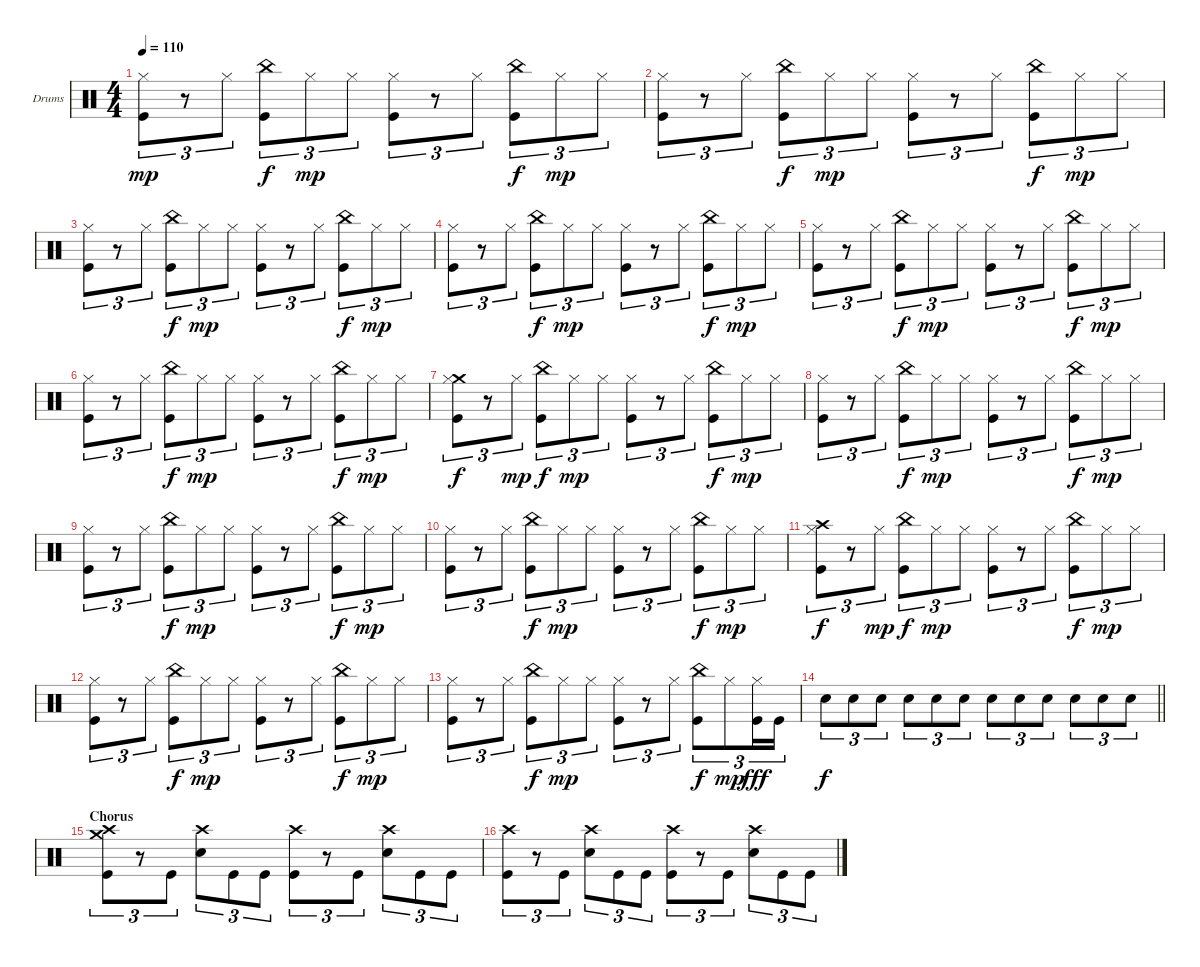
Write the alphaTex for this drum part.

\bracketExtendMode groupsimilarinstruments
\firstSystemTrackNameOrientation horizontal
\otherSystemsTrackNameOrientation horizontal
\track ("Drumkit" "Drums") {instrument percussion}
\staff {score}
\articulation defaults
\ts (4 4)
\tempo 110
\clef neutral
\ks c
("Hi-Hat (closed)" "Kick (hit)").8{tu (3 2) dy mp} r.8{tu (3 2)} "Hi-Hat (closed)".8{tu (3 2)} ("China (hit)" "Kick (hit)").8{tu (3 2) dy f} "Hi-Hat (closed)".8{tu (3 2) dy mp} "Hi-Hat (closed)".8{tu (3 2)} ("Hi-Hat (closed)" "Kick (hit)").8{tu (3 2)} r.8{tu (3 2)} "Hi-Hat (closed)".8{tu (3 2)} ("China (hit)" "Kick (hit)").8{tu (3 2) dy f} "Hi-Hat (closed)".8{tu (3 2) dy mp} "Hi-Hat (closed)".8{tu (3 2)} |
("Hi-Hat (closed)" "Kick (hit)").8{tu (3 2)} r.8{tu (3 2)} "Hi-Hat (closed)".8{tu (3 2)} ("China (hit)" "Kick (hit)").8{tu (3 2) dy f} "Hi-Hat (closed)".8{tu (3 2) dy mp} "Hi-Hat (closed)".8{tu (3 2)} ("Hi-Hat (closed)" "Kick (hit)").8{tu (3 2)} r.8{tu (3 2)} "Hi-Hat (closed)".8{tu (3 2)} ("China (hit)" "Kick (hit)").8{tu (3 2) dy f} "Hi-Hat (closed)".8{tu (3 2) dy mp} "Hi-Hat (closed)".8{tu (3 2)} |
("Hi-Hat (closed)" "Kick (hit)").8{tu (3 2)} r.8{tu (3 2)} "Hi-Hat (closed)".8{tu (3 2)} ("China (hit)" "Kick (hit)").8{tu (3 2) dy f} "Hi-Hat (closed)".8{tu (3 2) dy mp} "Hi-Hat (closed)".8{tu (3 2)} ("Hi-Hat (closed)" "Kick (hit)").8{tu (3 2)} r.8{tu (3 2)} "Hi-Hat (closed)".8{tu (3 2)} ("China (hit)" "Kick (hit)").8{tu (3 2) dy f} "Hi-Hat (closed)".8{tu (3 2) dy mp} "Hi-Hat (closed)".8{tu (3 2)} |
("Hi-Hat (closed)" "Kick (hit)").8{tu (3 2)} r.8{tu (3 2)} "Hi-Hat (closed)".8{tu (3 2)} ("China (hit)" "Kick (hit)").8{tu (3 2) dy f} "Hi-Hat (closed)".8{tu (3 2) dy mp} "Hi-Hat (closed)".8{tu (3 2)} ("Hi-Hat (closed)" "Kick (hit)").8{tu (3 2)} r.8{tu (3 2)} "Hi-Hat (closed)".8{tu (3 2)} ("China (hit)" "Kick (hit)").8{tu (3 2) dy f} "Hi-Hat (closed)".8{tu (3 2) dy mp} "Hi-Hat (closed)".8{tu (3 2)} |
("Hi-Hat (closed)" "Kick (hit)").8{tu (3 2)} r.8{tu (3 2)} "Hi-Hat (closed)".8{tu (3 2)} ("China (hit)" "Kick (hit)").8{tu (3 2) dy f} "Hi-Hat (closed)".8{tu (3 2) dy mp} "Hi-Hat (closed)".8{tu (3 2)} ("Hi-Hat (closed)" "Kick (hit)").8{tu (3 2)} r.8{tu (3 2)} "Hi-Hat (closed)".8{tu (3 2)} ("China (hit)" "Kick (hit)").8{tu (3 2) dy f} "Hi-Hat (closed)".8{tu (3 2) dy mp} "Hi-Hat (closed)".8{tu (3 2)} |
("Hi-Hat (closed)" "Kick (hit)").8{tu (3 2)} r.8{tu (3 2)} "Hi-Hat (closed)".8{tu (3 2)} ("China (hit)" "Kick (hit)").8{tu (3 2) dy f} "Hi-Hat (closed)".8{tu (3 2) dy mp} "Hi-Hat (closed)".8{tu (3 2)} ("Hi-Hat (closed)" "Kick (hit)").8{tu (3 2)} r.8{tu (3 2)} "Hi-Hat (closed)".8{tu (3 2)} ("China (hit)" "Kick (hit)").8{tu (3 2) dy f} "Hi-Hat (closed)".8{tu (3 2) dy mp} "Hi-Hat (closed)".8{tu (3 2)} |
("Crash medium (hit)" "Hi-Hat (closed)" "Kick (hit)").8{tu (3 2) dy f} r.8{tu (3 2)} "Hi-Hat (closed)".8{tu (3 2) dy mp} ("China (hit)" "Kick (hit)").8{tu (3 2) dy f} "Hi-Hat (closed)".8{tu (3 2) dy mp} "Hi-Hat (closed)".8{tu (3 2)} ("Hi-Hat (closed)" "Kick (hit)").8{tu (3 2)} r.8{tu (3 2)} "Hi-Hat (closed)".8{tu (3 2)} ("China (hit)" "Kick (hit)").8{tu (3 2) dy f} "Hi-Hat (closed)".8{tu (3 2) dy mp} "Hi-Hat (closed)".8{tu (3 2)} |
("Hi-Hat (closed)" "Kick (hit)").8{tu (3 2)} r.8{tu (3 2)} "Hi-Hat (closed)".8{tu (3 2)} ("China (hit)" "Kick (hit)").8{tu (3 2) dy f} "Hi-Hat (closed)".8{tu (3 2) dy mp} "Hi-Hat (closed)".8{tu (3 2)} ("Hi-Hat (closed)" "Kick (hit)").8{tu (3 2)} r.8{tu (3 2)} "Hi-Hat (closed)".8{tu (3 2)} ("China (hit)" "Kick (hit)").8{tu (3 2) dy f} "Hi-Hat (closed)".8{tu (3 2) dy mp} "Hi-Hat (closed)".8{tu (3 2)} |
("Hi-Hat (closed)" "Kick (hit)").8{tu (3 2)} r.8{tu (3 2)} "Hi-Hat (closed)".8{tu (3 2)} ("China (hit)" "Kick (hit)").8{tu (3 2) dy f} "Hi-Hat (closed)".8{tu (3 2) dy mp} "Hi-Hat (closed)".8{tu (3 2)} ("Hi-Hat (closed)" "Kick (hit)").8{tu (3 2)} r.8{tu (3 2)} "Hi-Hat (closed)".8{tu (3 2)} ("China (hit)" "Kick (hit)").8{tu (3 2) dy f} "Hi-Hat (closed)".8{tu (3 2) dy mp} "Hi-Hat (closed)".8{tu (3 2)} |
("Hi-Hat (closed)" "Kick (hit)").8{tu (3 2)} r.8{tu (3 2)} "Hi-Hat (closed)".8{tu (3 2)} ("China (hit)" "Kick (hit)").8{tu (3 2) dy f} "Hi-Hat (closed)".8{tu (3 2) dy mp} "Hi-Hat (closed)".8{tu (3 2)} ("Hi-Hat (closed)" "Kick (hit)").8{tu (3 2)} r.8{tu (3 2)} "Hi-Hat (closed)".8{tu (3 2)} ("China (hit)" "Kick (hit)").8{tu (3 2) dy f} "Hi-Hat (closed)".8{tu (3 2) dy mp} "Hi-Hat (closed)".8{tu (3 2)} |
("Crash high (hit)" "Hi-Hat (closed)" "Kick (hit)").8{tu (3 2) dy f} r.8{tu (3 2)} "Hi-Hat (closed)".8{tu (3 2) dy mp} ("China (hit)" "Kick (hit)").8{tu (3 2) dy f} "Hi-Hat (closed)".8{tu (3 2) dy mp} "Hi-Hat (closed)".8{tu (3 2)} ("Hi-Hat (closed)" "Kick (hit)").8{tu (3 2)} r.8{tu (3 2)} "Hi-Hat (closed)".8{tu (3 2)} ("China (hit)" "Kick (hit)").8{tu (3 2) dy f} "Hi-Hat (closed)".8{tu (3 2) dy mp} "Hi-Hat (closed)".8{tu (3 2)} |
("Hi-Hat (closed)" "Kick (hit)").8{tu (3 2)} r.8{tu (3 2)} "Hi-Hat (closed)".8{tu (3 2)} ("China (hit)" "Kick (hit)").8{tu (3 2) dy f} "Hi-Hat (closed)".8{tu (3 2) dy mp} "Hi-Hat (closed)".8{tu (3 2)} ("Hi-Hat (closed)" "Kick (hit)").8{tu (3 2)} r.8{tu (3 2)} "Hi-Hat (closed)".8{tu (3 2)} ("China (hit)" "Kick (hit)").8{tu (3 2) dy f} "Hi-Hat (closed)".8{tu (3 2) dy mp} "Hi-Hat (closed)".8{tu (3 2)} |
("Hi-Hat (closed)" "Kick (hit)").8{tu (3 2)} r.8{tu (3 2)} "Hi-Hat (closed)".8{tu (3 2)} ("China (hit)" "Kick (hit)").8{tu (3 2) dy f} "Hi-Hat (closed)".8{tu (3 2) dy mp} "Hi-Hat (closed)".8{tu (3 2)} ("Hi-Hat (closed)" "Kick (hit)").8{tu (3 2)} r.8{tu (3 2)} "Hi-Hat (closed)".8{tu (3 2)} ("China (hit)" "Kick (hit)").8{tu (3 2) dy f} "Hi-Hat (closed)".8{tu (3 2) dy mp} ("Hi-Hat (closed)" "Kick (hit)").16{tu (3 2) dy fff} "Kick (hit)".16{tu (3 2)} |
\barLineRight lightlight "Snare (hit) 2".8{tu (3 2) dy f} "Snare (hit) 2".8{tu (3 2)} "Snare (hit) 2".8{tu (3 2)} "Snare (hit) 2".8{tu (3 2)} "Snare (hit) 2".8{tu (3 2)} "Snare (hit) 2".8{tu (3 2)} "Snare (hit) 2".8{tu (3 2)} "Snare (hit) 2".8{tu (3 2)} "Snare (hit) 2".8{tu (3 2)} "Snare (hit) 2".8{tu (3 2)} "Snare (hit) 2".8{tu (3 2)} "Snare (hit) 2".8{tu (3 2)}
|
\section ("" "Chorus")
("Crash high (hit)" "Crash medium (hit)" "Kick (hit)").8{tu (3 2)} r.8{tu (3 2)} "Kick (hit)".8{tu (3 2)} ("Crash high (hit)" "Snare (hit) 2").8{tu (3 2)} "Kick (hit)".8{tu (3 2)} "Kick (hit)".8{tu (3 2)} ("Crash high (hit)" "Kick (hit)").8{tu (3 2)} r.8{tu (3 2)} "Kick (hit)".8{tu (3 2)} ("Crash high (hit)" "Snare (hit) 2").8{tu (3 2)} "Kick (hit)".8{tu (3 2)} "Kick (hit)".8{tu (3 2)} |
("Crash high (hit)" "Kick (hit)").8{tu (3 2)} r.8{tu (3 2)} "Kick (hit)".8{tu (3 2)} ("Crash high (hit)" "Snare (hit) 2").8{tu (3 2)} "Kick (hit)".8{tu (3 2)} "Kick (hit)".8{tu (3 2)} ("Crash high (hit)" "Kick (hit)").8{tu (3 2)} r.8{tu (3 2)} "Kick (hit)".8{tu (3 2)} ("Crash high (hit)" "Snare (hit) 2").8{tu (3 2)} "Kick (hit)".8{tu (3 2)} "Kick (hit)".8{tu (3 2)}
